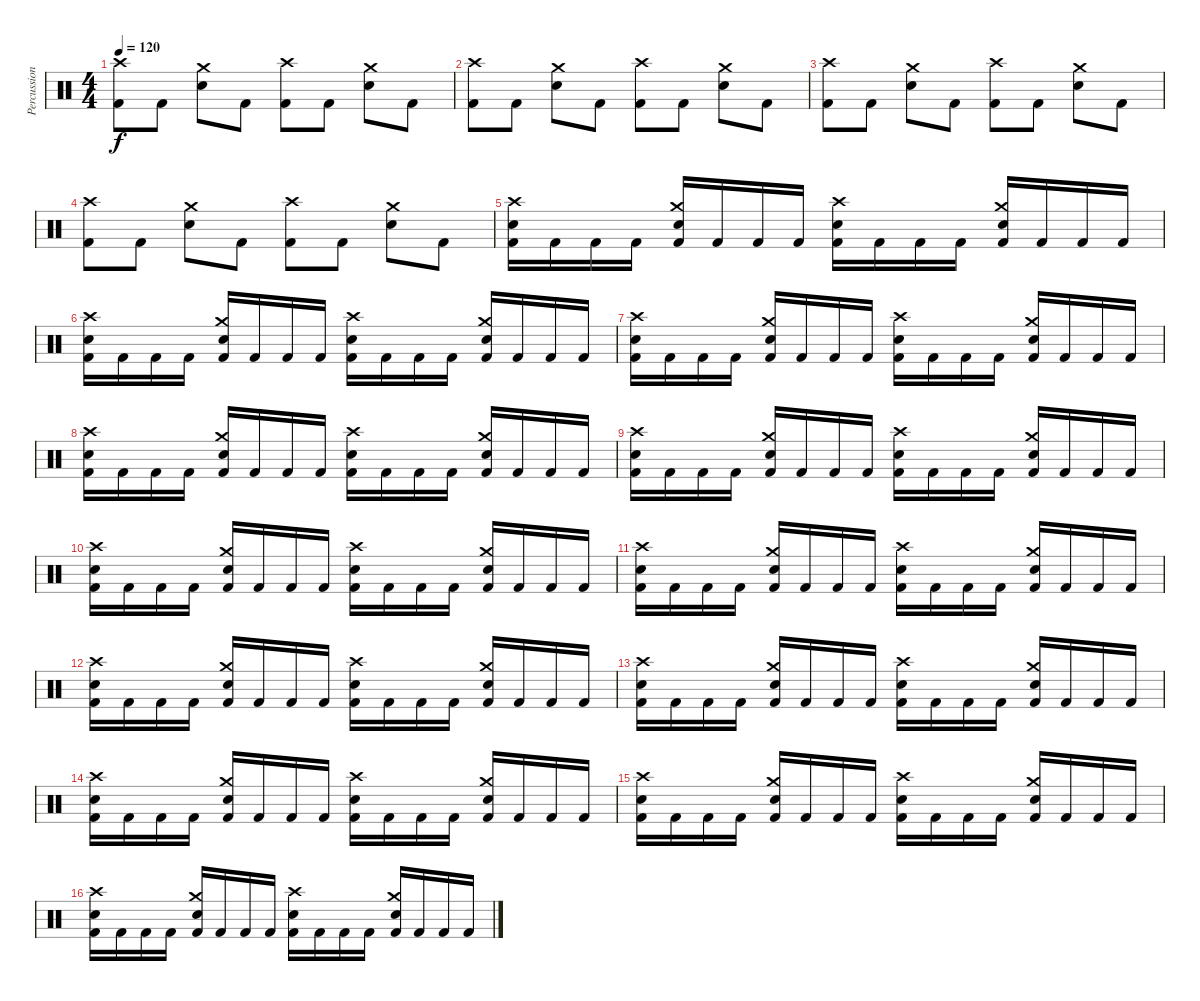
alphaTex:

\track ("Percussion" "Percussion") {instrument percussion}
\staff {score}
\articulation defaults
\ts (4 4)
\tempo 120
\clef neutral
\ks c
("Crash high (hit)" "Kick (hit) 2").8{dy f} "Kick (hit) 2".8 ("Crash medium (hit)" "Snare (hit) 2").8 "Kick (hit) 2".8 ("Crash high (hit)" "Kick (hit) 2").8 "Kick (hit) 2".8 ("Crash medium (hit)" "Snare (hit) 2").8 "Kick (hit) 2".8 |
("Crash high (hit)" "Kick (hit) 2").8 "Kick (hit) 2".8 ("Crash medium (hit)" "Snare (hit) 2").8 "Kick (hit) 2".8 ("Crash high (hit)" "Kick (hit) 2").8 "Kick (hit) 2".8 ("Crash medium (hit)" "Snare (hit) 2").8 "Kick (hit) 2".8 |
("Crash high (hit)" "Kick (hit) 2").8 "Kick (hit) 2".8 ("Crash medium (hit)" "Snare (hit) 2").8 "Kick (hit) 2".8 ("Crash high (hit)" "Kick (hit) 2").8 "Kick (hit) 2".8 ("Crash medium (hit)" "Snare (hit) 2").8 "Kick (hit) 2".8 |
("Crash high (hit)" "Kick (hit) 2").8 "Kick (hit) 2".8 ("Crash medium (hit)" "Snare (hit) 2").8 "Kick (hit) 2".8 ("Crash high (hit)" "Kick (hit) 2").8 "Kick (hit) 2".8 ("Crash medium (hit)" "Snare (hit) 2").8 "Kick (hit) 2".8 |
("Crash high (hit)" "Snare (hit) 2" "Kick (hit) 2").16 "Kick (hit) 2".16 "Kick (hit) 2".16 "Kick (hit) 2".16 ("Crash medium (hit)" "Snare (hit) 2" "Kick (hit) 2").16 "Kick (hit) 2".16 "Kick (hit) 2".16 "Kick (hit) 2".16 ("Crash high (hit)" "Snare (hit) 2" "Kick (hit) 2").16 "Kick (hit) 2".16 "Kick (hit) 2".16 "Kick (hit) 2".16 ("Crash medium (hit)" "Snare (hit) 2" "Kick (hit) 2").16 "Kick (hit) 2".16 "Kick (hit) 2".16 "Kick (hit) 2".16 |
("Crash high (hit)" "Snare (hit) 2" "Kick (hit) 2").16 "Kick (hit) 2".16 "Kick (hit) 2".16 "Kick (hit) 2".16 ("Crash medium (hit)" "Snare (hit) 2" "Kick (hit) 2").16 "Kick (hit) 2".16 "Kick (hit) 2".16 "Kick (hit) 2".16 ("Crash high (hit)" "Snare (hit) 2" "Kick (hit) 2").16 "Kick (hit) 2".16 "Kick (hit) 2".16 "Kick (hit) 2".16 ("Crash medium (hit)" "Snare (hit) 2" "Kick (hit) 2").16 "Kick (hit) 2".16 "Kick (hit) 2".16 "Kick (hit) 2".16 |
("Crash high (hit)" "Snare (hit) 2" "Kick (hit) 2").16 "Kick (hit) 2".16 "Kick (hit) 2".16 "Kick (hit) 2".16 ("Crash medium (hit)" "Snare (hit) 2" "Kick (hit) 2").16 "Kick (hit) 2".16 "Kick (hit) 2".16 "Kick (hit) 2".16 ("Crash high (hit)" "Snare (hit) 2" "Kick (hit) 2").16 "Kick (hit) 2".16 "Kick (hit) 2".16 "Kick (hit) 2".16 ("Crash medium (hit)" "Snare (hit) 2" "Kick (hit) 2").16 "Kick (hit) 2".16 "Kick (hit) 2".16 "Kick (hit) 2".16 |
("Crash high (hit)" "Snare (hit) 2" "Kick (hit) 2").16 "Kick (hit) 2".16 "Kick (hit) 2".16 "Kick (hit) 2".16 ("Crash medium (hit)" "Snare (hit) 2" "Kick (hit) 2").16 "Kick (hit) 2".16 "Kick (hit) 2".16 "Kick (hit) 2".16 ("Crash high (hit)" "Snare (hit) 2" "Kick (hit) 2").16 "Kick (hit) 2".16 "Kick (hit) 2".16 "Kick (hit) 2".16 ("Crash medium (hit)" "Snare (hit) 2" "Kick (hit) 2").16 "Kick (hit) 2".16 "Kick (hit) 2".16 "Kick (hit) 2".16 |
("Crash high (hit)" "Snare (hit) 2" "Kick (hit) 2").16 "Kick (hit) 2".16 "Kick (hit) 2".16 "Kick (hit) 2".16 ("Crash medium (hit)" "Snare (hit) 2" "Kick (hit) 2").16 "Kick (hit) 2".16 "Kick (hit) 2".16 "Kick (hit) 2".16 ("Crash high (hit)" "Snare (hit) 2" "Kick (hit) 2").16 "Kick (hit) 2".16 "Kick (hit) 2".16 "Kick (hit) 2".16 ("Crash medium (hit)" "Snare (hit) 2" "Kick (hit) 2").16 "Kick (hit) 2".16 "Kick (hit) 2".16 "Kick (hit) 2".16 |
("Crash high (hit)" "Snare (hit) 2" "Kick (hit) 2").16 "Kick (hit) 2".16 "Kick (hit) 2".16 "Kick (hit) 2".16 ("Crash medium (hit)" "Snare (hit) 2" "Kick (hit) 2").16 "Kick (hit) 2".16 "Kick (hit) 2".16 "Kick (hit) 2".16 ("Crash high (hit)" "Snare (hit) 2" "Kick (hit) 2").16 "Kick (hit) 2".16 "Kick (hit) 2".16 "Kick (hit) 2".16 ("Crash medium (hit)" "Snare (hit) 2" "Kick (hit) 2").16 "Kick (hit) 2".16 "Kick (hit) 2".16 "Kick (hit) 2".16 |
("Crash high (hit)" "Snare (hit) 2" "Kick (hit) 2").16 "Kick (hit) 2".16 "Kick (hit) 2".16 "Kick (hit) 2".16 ("Crash medium (hit)" "Snare (hit) 2" "Kick (hit) 2").16 "Kick (hit) 2".16 "Kick (hit) 2".16 "Kick (hit) 2".16 ("Crash high (hit)" "Snare (hit) 2" "Kick (hit) 2").16 "Kick (hit) 2".16 "Kick (hit) 2".16 "Kick (hit) 2".16 ("Crash medium (hit)" "Snare (hit) 2" "Kick (hit) 2").16 "Kick (hit) 2".16 "Kick (hit) 2".16 "Kick (hit) 2".16 |
("Crash high (hit)" "Snare (hit) 2" "Kick (hit) 2").16 "Kick (hit) 2".16 "Kick (hit) 2".16 "Kick (hit) 2".16 ("Crash medium (hit)" "Snare (hit) 2" "Kick (hit) 2").16 "Kick (hit) 2".16 "Kick (hit) 2".16 "Kick (hit) 2".16 ("Crash high (hit)" "Snare (hit) 2" "Kick (hit) 2").16 "Kick (hit) 2".16 "Kick (hit) 2".16 "Kick (hit) 2".16 ("Crash medium (hit)" "Snare (hit) 2" "Kick (hit) 2").16 "Kick (hit) 2".16 "Kick (hit) 2".16 "Kick (hit) 2".16 |
("Crash high (hit)" "Snare (hit) 2" "Kick (hit) 2").16 "Kick (hit) 2".16 "Kick (hit) 2".16 "Kick (hit) 2".16 ("Crash medium (hit)" "Snare (hit) 2" "Kick (hit) 2").16 "Kick (hit) 2".16 "Kick (hit) 2".16 "Kick (hit) 2".16 ("Crash high (hit)" "Snare (hit) 2" "Kick (hit) 2").16 "Kick (hit) 2".16 "Kick (hit) 2".16 "Kick (hit) 2".16 ("Crash medium (hit)" "Snare (hit) 2" "Kick (hit) 2").16 "Kick (hit) 2".16 "Kick (hit) 2".16 "Kick (hit) 2".16 |
("Crash high (hit)" "Snare (hit) 2" "Kick (hit) 2").16 "Kick (hit) 2".16 "Kick (hit) 2".16 "Kick (hit) 2".16 ("Crash medium (hit)" "Snare (hit) 2" "Kick (hit) 2").16 "Kick (hit) 2".16 "Kick (hit) 2".16 "Kick (hit) 2".16 ("Crash high (hit)" "Snare (hit) 2" "Kick (hit) 2").16 "Kick (hit) 2".16 "Kick (hit) 2".16 "Kick (hit) 2".16 ("Crash medium (hit)" "Snare (hit) 2" "Kick (hit) 2").16 "Kick (hit) 2".16 "Kick (hit) 2".16 "Kick (hit) 2".16 |
("Crash high (hit)" "Snare (hit) 2" "Kick (hit) 2").16 "Kick (hit) 2".16 "Kick (hit) 2".16 "Kick (hit) 2".16 ("Crash medium (hit)" "Snare (hit) 2" "Kick (hit) 2").16 "Kick (hit) 2".16 "Kick (hit) 2".16 "Kick (hit) 2".16 ("Crash high (hit)" "Snare (hit) 2" "Kick (hit) 2").16 "Kick (hit) 2".16 "Kick (hit) 2".16 "Kick (hit) 2".16 ("Crash medium (hit)" "Snare (hit) 2" "Kick (hit) 2").16 "Kick (hit) 2".16 "Kick (hit) 2".16 "Kick (hit) 2".16 |
("Crash high (hit)" "Snare (hit) 2" "Kick (hit) 2").16 "Kick (hit) 2".16 "Kick (hit) 2".16 "Kick (hit) 2".16 ("Crash medium (hit)" "Snare (hit) 2" "Kick (hit) 2").16 "Kick (hit) 2".16 "Kick (hit) 2".16 "Kick (hit) 2".16 ("Crash high (hit)" "Snare (hit) 2" "Kick (hit) 2").16 "Kick (hit) 2".16 "Kick (hit) 2".16 "Kick (hit) 2".16 ("Crash medium (hit)" "Snare (hit) 2" "Kick (hit) 2").16 "Kick (hit) 2".16 "Kick (hit) 2".16 "Kick (hit) 2".16
